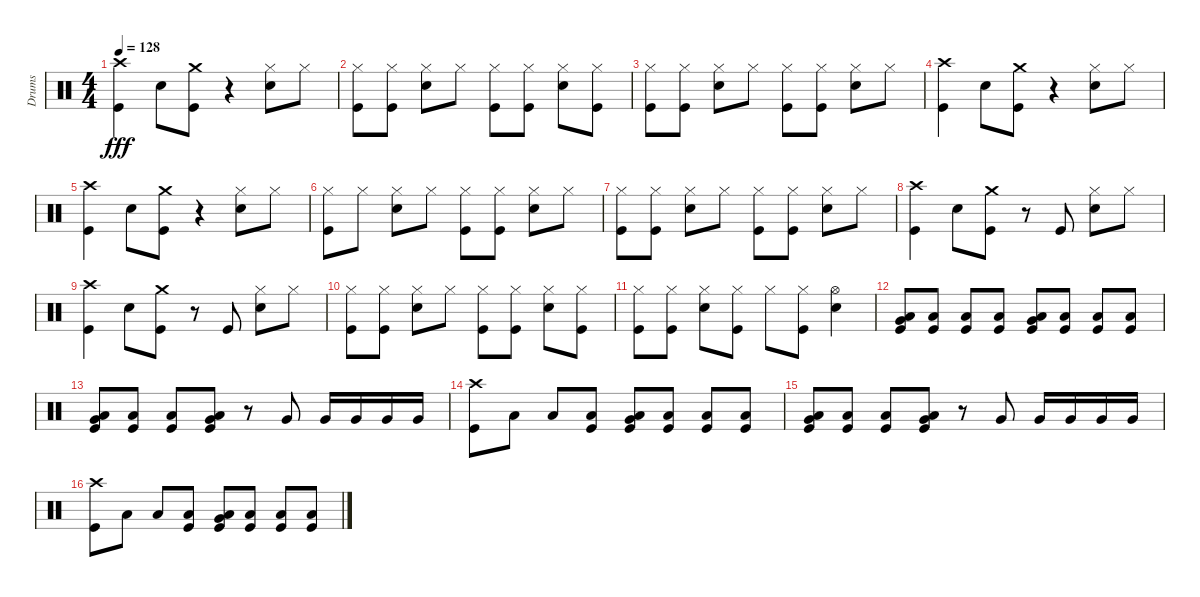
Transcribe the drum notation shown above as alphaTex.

\track ("Drums" "Drums") {instrument percussion}
\staff {score}
\articulation defaults
\ts (4 4)
\tempo 128
\clef neutral
\ks c
("Crash high (hit)" "Kick (hit)").4{dy fff} "Snare (hit) 2".8 ("Crash medium (hit)" "Kick (hit)").8 r.4 ("Hi-Hat (closed)" "Snare (hit) 2").8 "Hi-Hat (closed)".8 |
("Hi-Hat (closed)" "Kick (hit)").8 ("Hi-Hat (closed)" "Kick (hit)").8 ("Hi-Hat (closed)" "Snare (hit) 2").8 "Hi-Hat (closed)".8 ("Hi-Hat (closed)" "Kick (hit)").8 ("Hi-Hat (closed)" "Kick (hit)").8 ("Hi-Hat (closed)" "Snare (hit) 2").8 ("Hi-Hat (closed)" "Kick (hit)").8 |
("Hi-Hat (closed)" "Kick (hit)").8 ("Hi-Hat (closed)" "Kick (hit)").8 ("Hi-Hat (closed)" "Snare (hit) 2").8 "Hi-Hat (closed)".8 ("Hi-Hat (closed)" "Kick (hit)").8 ("Hi-Hat (closed)" "Kick (hit)").8 ("Hi-Hat (closed)" "Snare (hit) 2").8 "Hi-Hat (closed)".8 |
("Crash high (hit)" "Kick (hit)").4 "Snare (hit) 2".8 ("Crash medium (hit)" "Kick (hit)").8 r.4 ("Hi-Hat (closed)" "Snare (hit) 2").8 "Hi-Hat (closed)".8 |
("Crash high (hit)" "Kick (hit)").4 "Snare (hit) 2".8 ("Crash medium (hit)" "Kick (hit)").8 r.4 ("Hi-Hat (closed)" "Snare (hit) 2").8 "Hi-Hat (closed)".8 |
("Hi-Hat (closed)" "Kick (hit)").8 "Hi-Hat (closed)".8 ("Hi-Hat (closed)" "Snare (hit) 2").8 "Hi-Hat (closed)".8 ("Hi-Hat (closed)" "Kick (hit)").8 ("Hi-Hat (closed)" "Kick (hit)").8 ("Hi-Hat (closed)" "Snare (hit) 2").8 "Hi-Hat (closed)".8 |
("Hi-Hat (closed)" "Kick (hit)").8 ("Hi-Hat (closed)" "Kick (hit)").8 ("Hi-Hat (closed)" "Snare (hit) 2").8 "Hi-Hat (closed)".8 ("Hi-Hat (closed)" "Kick (hit)").8 ("Hi-Hat (closed)" "Kick (hit)").8 ("Hi-Hat (closed)" "Snare (hit) 2").8 "Hi-Hat (closed)".8 |
("Crash high (hit)" "Kick (hit)").4 "Snare (hit) 2".8 ("Crash medium (hit)" "Kick (hit)").8 r.8 "Kick (hit)".8 ("Hi-Hat (closed)" "Snare (hit) 2").8 "Hi-Hat (closed)".8 |
("Crash high (hit)" "Kick (hit)").4 "Snare (hit) 2".8 ("Crash medium (hit)" "Kick (hit)").8 r.8 "Kick (hit)".8 ("Hi-Hat (closed)" "Snare (hit) 2").8 "Hi-Hat (closed)".8 |
("Hi-Hat (closed)" "Kick (hit)").8 ("Hi-Hat (closed)" "Kick (hit)").8 ("Hi-Hat (closed)" "Snare (hit) 2").8 "Hi-Hat (closed)".8 ("Hi-Hat (closed)" "Kick (hit)").8 ("Hi-Hat (closed)" "Kick (hit)").8 ("Hi-Hat (closed)" "Snare (hit) 2").8 ("Hi-Hat (closed)" "Kick (hit)").8 |
("Hi-Hat (closed)" "Kick (hit)").8 ("Hi-Hat (closed)" "Kick (hit)").8 ("Hi-Hat (closed)" "Snare (hit) 2").8 ("Hi-Hat (closed)" "Kick (hit)").8 "Hi-Hat (closed)".8 ("Hi-Hat (closed)" "Kick (hit)").8 ("Hi-Hat (open)" "Snare (hit) 2").4 |
("Very Low Tom (hit)" "Low Floor Tom (hit)" "Kick (hit)").8 ("Low Floor Tom (hit)" "Kick (hit)").8 ("Low Floor Tom (hit)" "Kick (hit)").8 ("Low Floor Tom (hit)" "Kick (hit)").8 ("Very Low Tom (hit)" "Low Floor Tom (hit)" "Kick (hit)").8 ("Low Floor Tom (hit)" "Kick (hit)").8 ("Low Floor Tom (hit)" "Kick (hit)").8 ("Low Floor Tom (hit)" "Kick (hit)").8 |
("Very Low Tom (hit)" "Low Floor Tom (hit)" "Kick (hit)").8 ("Low Floor Tom (hit)" "Kick (hit)").8 ("Low Floor Tom (hit)" "Kick (hit)").8 ("Very Low Tom (hit)" "Low Floor Tom (hit)" "Kick (hit)").8 r.8 "Very Low Tom (hit)".8 "Very Low Tom (hit)".16 "Very Low Tom (hit)".16 "Very Low Tom (hit)".16 "Very Low Tom (hit)".16 |
("Crash high (hit)" "Kick (hit)").8 "Low Floor Tom (hit)".8 "Low Floor Tom (hit)".8 ("Low Floor Tom (hit)" "Kick (hit)").8 ("Very Low Tom (hit)" "Low Floor Tom (hit)" "Kick (hit)").8 ("Low Floor Tom (hit)" "Kick (hit)").8 ("Low Floor Tom (hit)" "Kick (hit)").8 ("Low Floor Tom (hit)" "Kick (hit)").8 |
("Very Low Tom (hit)" "Low Floor Tom (hit)" "Kick (hit)").8 ("Low Floor Tom (hit)" "Kick (hit)").8 ("Low Floor Tom (hit)" "Kick (hit)").8 ("Very Low Tom (hit)" "Low Floor Tom (hit)" "Kick (hit)").8 r.8 "Very Low Tom (hit)".8 "Very Low Tom (hit)".16 "Very Low Tom (hit)".16 "Very Low Tom (hit)".16 "Very Low Tom (hit)".16 |
("Crash high (hit)" "Kick (hit)").8 "Low Floor Tom (hit)".8 "Low Floor Tom (hit)".8 ("Low Floor Tom (hit)" "Kick (hit)").8 ("Very Low Tom (hit)" "Low Floor Tom (hit)" "Kick (hit)").8 ("Low Floor Tom (hit)" "Kick (hit)").8 ("Low Floor Tom (hit)" "Kick (hit)").8 ("Low Floor Tom (hit)" "Kick (hit)").8
